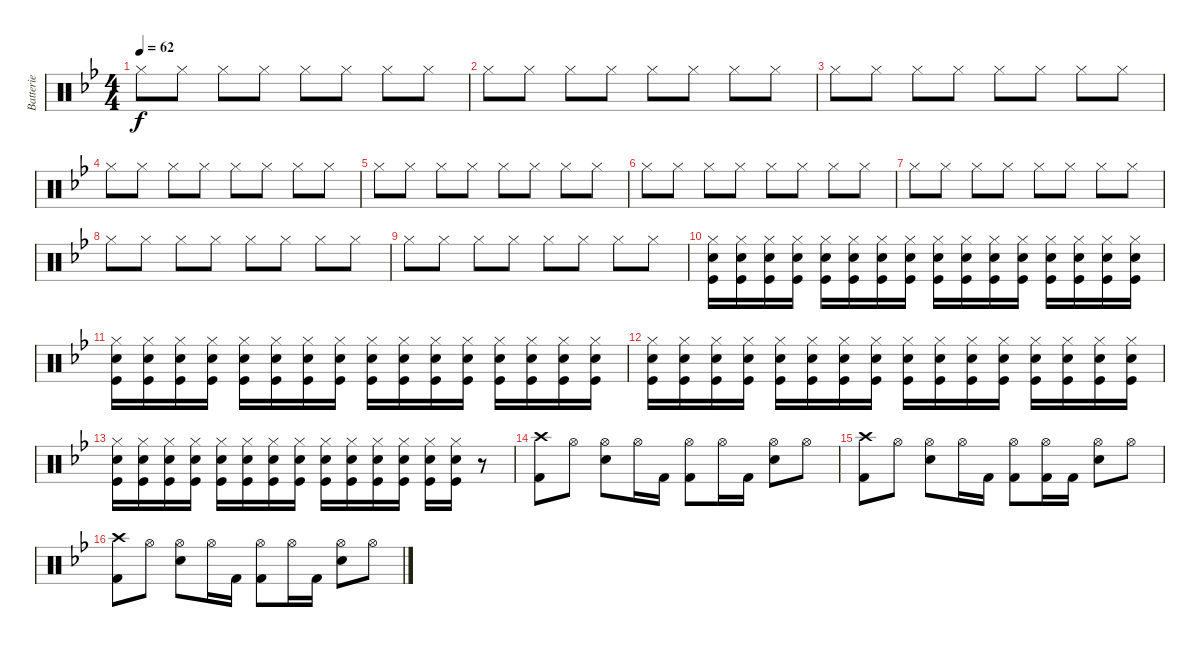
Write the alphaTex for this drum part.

\track ("Batterie" "Batterie") {instrument percussion}
\staff {score}
\articulation defaults
\ts (4 4)
\tempo 62
\clef neutral
\ks bb "Hi-Hat (closed)".8{dy f} "Hi-Hat (closed)".8 "Hi-Hat (closed)".8 "Hi-Hat (closed)".8 "Hi-Hat (closed)".8 "Hi-Hat (closed)".8 "Hi-Hat (closed)".8 "Hi-Hat (closed)".8
|
"Hi-Hat (closed)".8 "Hi-Hat (closed)".8 "Hi-Hat (closed)".8 "Hi-Hat (closed)".8 "Hi-Hat (closed)".8 "Hi-Hat (closed)".8 "Hi-Hat (closed)".8 "Hi-Hat (closed)".8 |
"Hi-Hat (closed)".8 "Hi-Hat (closed)".8 "Hi-Hat (closed)".8 "Hi-Hat (closed)".8 "Hi-Hat (closed)".8 "Hi-Hat (closed)".8 "Hi-Hat (closed)".8 "Hi-Hat (closed)".8 |
"Hi-Hat (closed)".8 "Hi-Hat (closed)".8 "Hi-Hat (closed)".8 "Hi-Hat (closed)".8 "Hi-Hat (closed)".8 "Hi-Hat (closed)".8 "Hi-Hat (closed)".8 "Hi-Hat (closed)".8 |
"Hi-Hat (closed)".8 "Hi-Hat (closed)".8 "Hi-Hat (closed)".8 "Hi-Hat (closed)".8 "Hi-Hat (closed)".8 "Hi-Hat (closed)".8 "Hi-Hat (closed)".8 "Hi-Hat (closed)".8 |
"Hi-Hat (closed)".8 "Hi-Hat (closed)".8 "Hi-Hat (closed)".8 "Hi-Hat (closed)".8 "Hi-Hat (closed)".8 "Hi-Hat (closed)".8 "Hi-Hat (closed)".8 "Hi-Hat (closed)".8 |
"Hi-Hat (closed)".8 "Hi-Hat (closed)".8 "Hi-Hat (closed)".8 "Hi-Hat (closed)".8 "Hi-Hat (closed)".8 "Hi-Hat (closed)".8 "Hi-Hat (closed)".8 "Hi-Hat (closed)".8 |
"Hi-Hat (closed)".8 "Hi-Hat (closed)".8 "Hi-Hat (closed)".8 "Hi-Hat (closed)".8 "Hi-Hat (closed)".8 "Hi-Hat (closed)".8 "Hi-Hat (closed)".8 "Hi-Hat (closed)".8 |
"Hi-Hat (closed)".8 "Hi-Hat (closed)".8 "Hi-Hat (closed)".8 "Hi-Hat (closed)".8 "Hi-Hat (closed)".8 "Hi-Hat (closed)".8 "Hi-Hat (closed)".8 "Hi-Hat (closed)".8 |
("Hi-Hat (closed)" "Snare (hit) 2" "Kick (hit)").16{volume 6} ("Hi-Hat (closed)" "Snare (hit) 2" "Kick (hit)").16{volume 16} ("Hi-Hat (closed)" "Snare (hit) 2" "Kick (hit)").16 ("Hi-Hat (closed)" "Snare (hit) 2" "Kick (hit)").16 ("Hi-Hat (closed)" "Snare (hit) 2" "Kick (hit)").16 ("Hi-Hat (closed)" "Snare (hit) 2" "Kick (hit)").16 ("Hi-Hat (closed)" "Snare (hit) 2" "Kick (hit)").16 ("Hi-Hat (closed)" "Snare (hit) 2" "Kick (hit)").16 ("Hi-Hat (closed)" "Snare (hit) 2" "Kick (hit)").16 ("Hi-Hat (closed)" "Snare (hit) 2" "Kick (hit)").16 ("Hi-Hat (closed)" "Snare (hit) 2" "Kick (hit)").16 ("Hi-Hat (closed)" "Snare (hit) 2" "Kick (hit)").16 ("Hi-Hat (closed)" "Snare (hit) 2" "Kick (hit)").16 ("Hi-Hat (closed)" "Snare (hit) 2" "Kick (hit)").16 ("Hi-Hat (closed)" "Snare (hit) 2" "Kick (hit)").16 ("Hi-Hat (closed)" "Snare (hit) 2" "Kick (hit)").16 |
("Hi-Hat (closed)" "Snare (hit) 2" "Kick (hit)").16 ("Hi-Hat (closed)" "Snare (hit) 2" "Kick (hit)").16 ("Hi-Hat (closed)" "Snare (hit) 2" "Kick (hit)").16 ("Hi-Hat (closed)" "Snare (hit) 2" "Kick (hit)").16 ("Hi-Hat (closed)" "Snare (hit) 2" "Kick (hit)").16 ("Hi-Hat (closed)" "Snare (hit) 2" "Kick (hit)").16 ("Hi-Hat (closed)" "Snare (hit) 2" "Kick (hit)").16 ("Hi-Hat (closed)" "Snare (hit) 2" "Kick (hit)").16 ("Hi-Hat (closed)" "Snare (hit) 2" "Kick (hit)").16 ("Hi-Hat (closed)" "Snare (hit) 2" "Kick (hit)").16 ("Hi-Hat (closed)" "Snare (hit) 2" "Kick (hit)").16 ("Hi-Hat (closed)" "Snare (hit) 2" "Kick (hit)").16 ("Hi-Hat (closed)" "Snare (hit) 2" "Kick (hit)").16 ("Hi-Hat (closed)" "Snare (hit) 2" "Kick (hit)").16 ("Hi-Hat (closed)" "Snare (hit) 2" "Kick (hit)").16 ("Hi-Hat (closed)" "Snare (hit) 2" "Kick (hit)").16 |
("Hi-Hat (closed)" "Snare (hit) 2" "Kick (hit)").16 ("Hi-Hat (closed)" "Snare (hit) 2" "Kick (hit)").16 ("Hi-Hat (closed)" "Snare (hit) 2" "Kick (hit)").16 ("Hi-Hat (closed)" "Snare (hit) 2" "Kick (hit)").16 ("Hi-Hat (closed)" "Snare (hit) 2" "Kick (hit)").16 ("Hi-Hat (closed)" "Snare (hit) 2" "Kick (hit)").16 ("Hi-Hat (closed)" "Snare (hit) 2" "Kick (hit)").16 ("Hi-Hat (closed)" "Snare (hit) 2" "Kick (hit)").16 ("Hi-Hat (closed)" "Snare (hit) 2" "Kick (hit)").16 ("Hi-Hat (closed)" "Snare (hit) 2" "Kick (hit)").16 ("Hi-Hat (closed)" "Snare (hit) 2" "Kick (hit)").16 ("Hi-Hat (closed)" "Snare (hit) 2" "Kick (hit)").16 ("Hi-Hat (closed)" "Snare (hit) 2" "Kick (hit)").16 ("Hi-Hat (closed)" "Snare (hit) 2" "Kick (hit)").16 ("Hi-Hat (closed)" "Snare (hit) 2" "Kick (hit)").16 ("Hi-Hat (closed)" "Snare (hit) 2" "Kick (hit)").16 |
("Hi-Hat (closed)" "Snare (hit) 2" "Kick (hit)").16 ("Hi-Hat (closed)" "Snare (hit) 2" "Kick (hit)").16 ("Hi-Hat (closed)" "Snare (hit) 2" "Kick (hit)").16 ("Hi-Hat (closed)" "Snare (hit) 2" "Kick (hit)").16 ("Hi-Hat (closed)" "Snare (hit) 2" "Kick (hit)").16 ("Hi-Hat (closed)" "Snare (hit) 2" "Kick (hit)").16 ("Hi-Hat (closed)" "Snare (hit) 2" "Kick (hit)").16 ("Hi-Hat (closed)" "Snare (hit) 2" "Kick (hit)").16 ("Hi-Hat (closed)" "Snare (hit) 2" "Kick (hit)").16 ("Hi-Hat (closed)" "Snare (hit) 2" "Kick (hit)").16 ("Hi-Hat (closed)" "Snare (hit) 2" "Kick (hit)").16 ("Hi-Hat (closed)" "Snare (hit) 2" "Kick (hit)").16 ("Hi-Hat (closed)" "Snare (hit) 2" "Kick (hit)").16 ("Hi-Hat (closed)" "Snare (hit) 2" "Kick (hit)").16 r.8 |
("Crash high (hit)" "Kick (hit) 2").8 "Hi-Hat (open)".8 ("Hi-Hat (open)" "Snare (hit) 2").8 "Hi-Hat (open)".16 "Kick (hit) 2".16 ("Hi-Hat (open)" "Kick (hit) 2").8 "Hi-Hat (open)".16 "Kick (hit) 2".16 ("Hi-Hat (open)" "Snare (hit) 2").8 "Hi-Hat (open)".8 |
("Crash high (hit)" "Kick (hit) 2").8 "Hi-Hat (open)".8 ("Hi-Hat (open)" "Snare (hit) 2").8 "Hi-Hat (open)".16 "Kick (hit) 2".16 ("Hi-Hat (open)" "Kick (hit) 2").8 ("Hi-Hat (open)" "Kick (hit) 2").16 "Kick (hit) 2".16 ("Hi-Hat (open)" "Snare (hit) 2").8 "Hi-Hat (open)".8 |
("Crash high (hit)" "Kick (hit) 2").8 "Hi-Hat (open)".8 ("Hi-Hat (open)" "Snare (hit) 2").8 "Hi-Hat (open)".16 "Kick (hit) 2".16 ("Hi-Hat (open)" "Kick (hit) 2").8 "Hi-Hat (open)".16 "Kick (hit) 2".16 ("Hi-Hat (open)" "Snare (hit) 2").8 "Hi-Hat (open)".8
